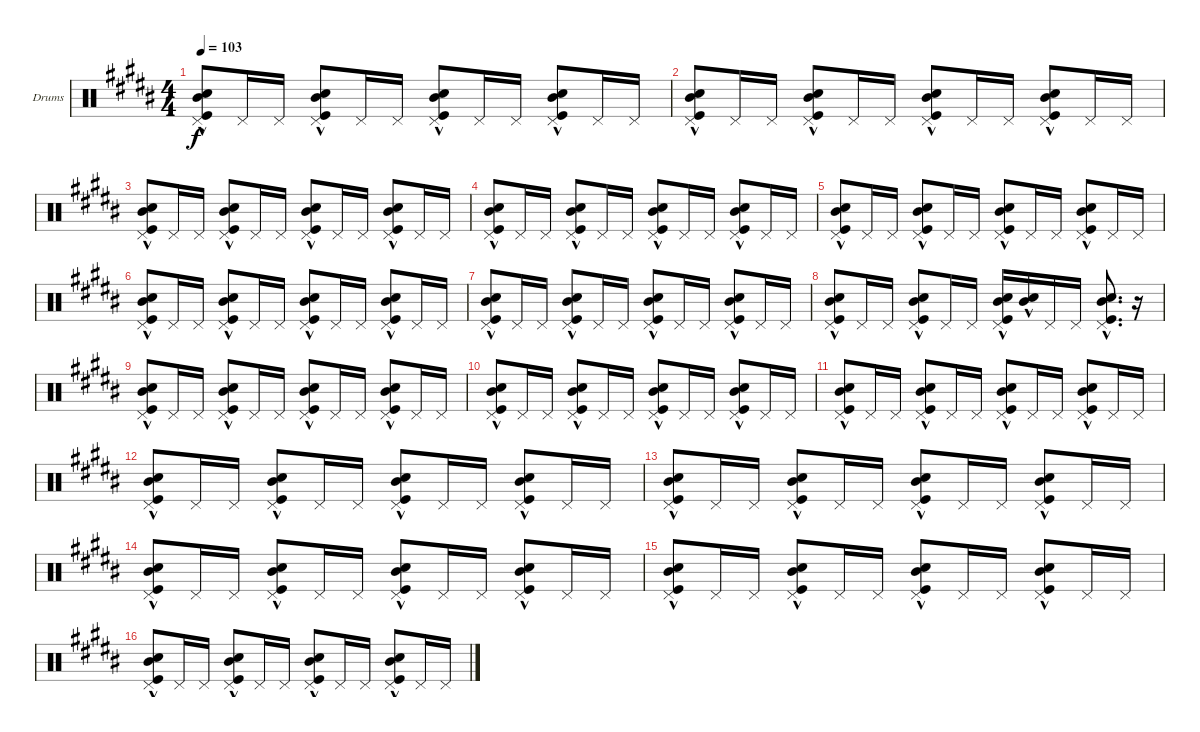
\defaultSystemsLayout 4
\bracketExtendMode groupsimilarinstruments
\firstSystemTrackNameOrientation horizontal
\otherSystemsTrackNameOrientation horizontal
\track ("Drumkit" "Drums") {instrument percussion}
\staff {score}
\articulation defaults
\ts (4 4)
\tempo 103
\clef neutral
\ks b
("Snare (hit) 2" "Mid Tom (hit)"{hac} "Pedal Hi-Hat (hit)" "Kick (hit)"{hac}).8{dy f} "Pedal Hi-Hat (hit)".16 "Pedal Hi-Hat (hit)".16 ("Snare (hit) 2" "Mid Tom (hit)"{hac} "Pedal Hi-Hat (hit)" "Kick (hit)"{hac}).8 "Pedal Hi-Hat (hit)".16 "Pedal Hi-Hat (hit)".16 ("Snare (hit) 2" "Mid Tom (hit)"{hac} "Pedal Hi-Hat (hit)" "Kick (hit)"{hac}).8 "Pedal Hi-Hat (hit)".16 "Pedal Hi-Hat (hit)".16 ("Snare (hit) 2" "Mid Tom (hit)"{hac} "Pedal Hi-Hat (hit)" "Kick (hit)"{hac}).8 "Pedal Hi-Hat (hit)".16 "Pedal Hi-Hat (hit)".16 |
("Snare (hit) 2" "Mid Tom (hit)"{hac} "Pedal Hi-Hat (hit)" "Kick (hit)"{hac}).8 "Pedal Hi-Hat (hit)".16 "Pedal Hi-Hat (hit)".16 ("Snare (hit) 2" "Mid Tom (hit)"{hac} "Pedal Hi-Hat (hit)" "Kick (hit)"{hac}).8 "Pedal Hi-Hat (hit)".16 "Pedal Hi-Hat (hit)".16 ("Snare (hit) 2" "Mid Tom (hit)"{hac} "Pedal Hi-Hat (hit)" "Kick (hit)"{hac}).8 "Pedal Hi-Hat (hit)".16 "Pedal Hi-Hat (hit)".16 ("Snare (hit) 2" "Mid Tom (hit)"{hac} "Pedal Hi-Hat (hit)" "Kick (hit)"{hac}).8 "Pedal Hi-Hat (hit)".16 "Pedal Hi-Hat (hit)".16 |
("Snare (hit) 2" "Mid Tom (hit)"{hac} "Pedal Hi-Hat (hit)" "Kick (hit)"{hac}).8 "Pedal Hi-Hat (hit)".16 "Pedal Hi-Hat (hit)".16 ("Snare (hit) 2" "Mid Tom (hit)"{hac} "Pedal Hi-Hat (hit)" "Kick (hit)"{hac}).8 "Pedal Hi-Hat (hit)".16 "Pedal Hi-Hat (hit)".16 ("Snare (hit) 2" "Mid Tom (hit)"{hac} "Pedal Hi-Hat (hit)" "Kick (hit)"{hac}).8 "Pedal Hi-Hat (hit)".16 "Pedal Hi-Hat (hit)".16 ("Snare (hit) 2" "Mid Tom (hit)"{hac} "Pedal Hi-Hat (hit)" "Kick (hit)"{hac}).8 "Pedal Hi-Hat (hit)".16 "Pedal Hi-Hat (hit)".16 |
("Snare (hit) 2" "Mid Tom (hit)"{hac} "Pedal Hi-Hat (hit)" "Kick (hit)"{hac}).8 "Pedal Hi-Hat (hit)".16 "Pedal Hi-Hat (hit)".16 ("Snare (hit) 2" "Mid Tom (hit)"{hac} "Pedal Hi-Hat (hit)" "Kick (hit)"{hac}).8 "Pedal Hi-Hat (hit)".16 "Pedal Hi-Hat (hit)".16 ("Snare (hit) 2" "Mid Tom (hit)"{hac} "Pedal Hi-Hat (hit)" "Kick (hit)"{hac}).8 "Pedal Hi-Hat (hit)".16 "Pedal Hi-Hat (hit)".16 ("Snare (hit) 2" "Mid Tom (hit)"{hac} "Pedal Hi-Hat (hit)" "Kick (hit)"{hac}).8 "Pedal Hi-Hat (hit)".16 "Pedal Hi-Hat (hit)".16 |
("Snare (hit) 2" "Mid Tom (hit)"{hac} "Pedal Hi-Hat (hit)" "Kick (hit)"{hac}).8 "Pedal Hi-Hat (hit)".16 "Pedal Hi-Hat (hit)".16 ("Snare (hit) 2" "Mid Tom (hit)"{hac} "Pedal Hi-Hat (hit)" "Kick (hit)"{hac}).8 "Pedal Hi-Hat (hit)".16 "Pedal Hi-Hat (hit)".16 ("Snare (hit) 2" "Mid Tom (hit)"{hac} "Pedal Hi-Hat (hit)" "Kick (hit)"{hac}).8 "Pedal Hi-Hat (hit)".16 "Pedal Hi-Hat (hit)".16 ("Snare (hit) 2" "Mid Tom (hit)"{hac} "Pedal Hi-Hat (hit)" "Kick (hit)"{hac}).8 "Pedal Hi-Hat (hit)".16 "Pedal Hi-Hat (hit)".16 |
("Snare (hit) 2" "Mid Tom (hit)"{hac} "Pedal Hi-Hat (hit)" "Kick (hit)"{hac}).8 "Pedal Hi-Hat (hit)".16 "Pedal Hi-Hat (hit)".16 ("Snare (hit) 2" "Mid Tom (hit)"{hac} "Pedal Hi-Hat (hit)" "Kick (hit)"{hac}).8 "Pedal Hi-Hat (hit)".16 "Pedal Hi-Hat (hit)".16 ("Snare (hit) 2" "Mid Tom (hit)"{hac} "Pedal Hi-Hat (hit)" "Kick (hit)"{hac}).8 "Pedal Hi-Hat (hit)".16 "Pedal Hi-Hat (hit)".16 ("Snare (hit) 2" "Mid Tom (hit)"{hac} "Pedal Hi-Hat (hit)" "Kick (hit)"{hac}).8 "Pedal Hi-Hat (hit)".16 "Pedal Hi-Hat (hit)".16 |
("Snare (hit) 2" "Mid Tom (hit)"{hac} "Pedal Hi-Hat (hit)" "Kick (hit)"{hac}).8 "Pedal Hi-Hat (hit)".16 "Pedal Hi-Hat (hit)".16 ("Snare (hit) 2" "Mid Tom (hit)"{hac} "Pedal Hi-Hat (hit)" "Kick (hit)"{hac}).8 "Pedal Hi-Hat (hit)".16 "Pedal Hi-Hat (hit)".16 ("Snare (hit) 2" "Mid Tom (hit)"{hac} "Pedal Hi-Hat (hit)" "Kick (hit)"{hac}).8 "Pedal Hi-Hat (hit)".16 "Pedal Hi-Hat (hit)".16 ("Snare (hit) 2" "Mid Tom (hit)"{hac} "Pedal Hi-Hat (hit)" "Kick (hit)"{hac}).8 "Pedal Hi-Hat (hit)".16 "Pedal Hi-Hat (hit)".16 |
("Snare (hit) 2" "Mid Tom (hit)"{hac} "Pedal Hi-Hat (hit)" "Kick (hit)"{hac}).8 "Pedal Hi-Hat (hit)".16 "Pedal Hi-Hat (hit)".16 ("Snare (hit) 2" "Mid Tom (hit)"{hac} "Pedal Hi-Hat (hit)" "Kick (hit)"{hac}).8 "Pedal Hi-Hat (hit)".16 "Pedal Hi-Hat (hit)".16 ("Pedal Hi-Hat (hit)" "Kick (hit)"{hac} "Snare (hit) 2" "Mid Tom (hit)"{hac}).16 ("Mid Tom (hit)"{hac} "Snare (hit) 2").16 "Pedal Hi-Hat (hit)".16 "Pedal Hi-Hat (hit)".16 ("Pedal Hi-Hat (hit)" "Kick (hit)"{hac} "Mid Tom (hit)"{hac} "Snare (hit) 2").8{d} r.16 |
("Snare (hit) 2" "Mid Tom (hit)"{hac} "Pedal Hi-Hat (hit)" "Kick (hit)"{hac}).8 "Pedal Hi-Hat (hit)".16 "Pedal Hi-Hat (hit)".16 ("Snare (hit) 2" "Mid Tom (hit)"{hac} "Pedal Hi-Hat (hit)" "Kick (hit)"{hac}).8 "Pedal Hi-Hat (hit)".16 "Pedal Hi-Hat (hit)".16 ("Snare (hit) 2" "Mid Tom (hit)"{hac} "Pedal Hi-Hat (hit)" "Kick (hit)"{hac}).8 "Pedal Hi-Hat (hit)".16 "Pedal Hi-Hat (hit)".16 ("Snare (hit) 2" "Mid Tom (hit)"{hac} "Pedal Hi-Hat (hit)" "Kick (hit)"{hac}).8 "Pedal Hi-Hat (hit)".16 "Pedal Hi-Hat (hit)".16 |
("Snare (hit) 2" "Mid Tom (hit)"{hac} "Pedal Hi-Hat (hit)" "Kick (hit)"{hac}).8 "Pedal Hi-Hat (hit)".16 "Pedal Hi-Hat (hit)".16 ("Snare (hit) 2" "Mid Tom (hit)"{hac} "Pedal Hi-Hat (hit)" "Kick (hit)"{hac}).8 "Pedal Hi-Hat (hit)".16 "Pedal Hi-Hat (hit)".16 ("Snare (hit) 2" "Mid Tom (hit)"{hac} "Pedal Hi-Hat (hit)" "Kick (hit)"{hac}).8 "Pedal Hi-Hat (hit)".16 "Pedal Hi-Hat (hit)".16 ("Snare (hit) 2" "Mid Tom (hit)"{hac} "Pedal Hi-Hat (hit)" "Kick (hit)"{hac}).8 "Pedal Hi-Hat (hit)".16 "Pedal Hi-Hat (hit)".16 |
("Snare (hit) 2" "Mid Tom (hit)"{hac} "Pedal Hi-Hat (hit)" "Kick (hit)"{hac}).8 "Pedal Hi-Hat (hit)".16 "Pedal Hi-Hat (hit)".16 ("Snare (hit) 2" "Mid Tom (hit)"{hac} "Pedal Hi-Hat (hit)" "Kick (hit)"{hac}).8 "Pedal Hi-Hat (hit)".16 "Pedal Hi-Hat (hit)".16 ("Snare (hit) 2" "Mid Tom (hit)"{hac} "Pedal Hi-Hat (hit)" "Kick (hit)"{hac}).8 "Pedal Hi-Hat (hit)".16 "Pedal Hi-Hat (hit)".16 ("Snare (hit) 2" "Mid Tom (hit)"{hac} "Pedal Hi-Hat (hit)" "Kick (hit)"{hac}).8 "Pedal Hi-Hat (hit)".16 "Pedal Hi-Hat (hit)".16 |
("Snare (hit) 2" "Mid Tom (hit)"{hac} "Pedal Hi-Hat (hit)" "Kick (hit)"{hac}).8 "Pedal Hi-Hat (hit)".16 "Pedal Hi-Hat (hit)".16 ("Snare (hit) 2" "Mid Tom (hit)"{hac} "Pedal Hi-Hat (hit)" "Kick (hit)"{hac}).8 "Pedal Hi-Hat (hit)".16 "Pedal Hi-Hat (hit)".16 ("Snare (hit) 2" "Mid Tom (hit)"{hac} "Pedal Hi-Hat (hit)" "Kick (hit)"{hac}).8 "Pedal Hi-Hat (hit)".16 "Pedal Hi-Hat (hit)".16 ("Snare (hit) 2" "Mid Tom (hit)"{hac} "Pedal Hi-Hat (hit)" "Kick (hit)"{hac}).8 "Pedal Hi-Hat (hit)".16 "Pedal Hi-Hat (hit)".16 |
("Snare (hit) 2" "Mid Tom (hit)"{hac} "Pedal Hi-Hat (hit)" "Kick (hit)"{hac}).8 "Pedal Hi-Hat (hit)".16 "Pedal Hi-Hat (hit)".16 ("Snare (hit) 2" "Mid Tom (hit)"{hac} "Pedal Hi-Hat (hit)" "Kick (hit)"{hac}).8 "Pedal Hi-Hat (hit)".16 "Pedal Hi-Hat (hit)".16 ("Snare (hit) 2" "Mid Tom (hit)"{hac} "Pedal Hi-Hat (hit)" "Kick (hit)"{hac}).8 "Pedal Hi-Hat (hit)".16 "Pedal Hi-Hat (hit)".16 ("Snare (hit) 2" "Mid Tom (hit)"{hac} "Pedal Hi-Hat (hit)" "Kick (hit)"{hac}).8 "Pedal Hi-Hat (hit)".16 "Pedal Hi-Hat (hit)".16 |
("Snare (hit) 2" "Mid Tom (hit)"{hac} "Pedal Hi-Hat (hit)" "Kick (hit)"{hac}).8 "Pedal Hi-Hat (hit)".16 "Pedal Hi-Hat (hit)".16 ("Snare (hit) 2" "Mid Tom (hit)"{hac} "Pedal Hi-Hat (hit)" "Kick (hit)"{hac}).8 "Pedal Hi-Hat (hit)".16 "Pedal Hi-Hat (hit)".16 ("Snare (hit) 2" "Mid Tom (hit)"{hac} "Pedal Hi-Hat (hit)" "Kick (hit)"{hac}).8 "Pedal Hi-Hat (hit)".16 "Pedal Hi-Hat (hit)".16 ("Snare (hit) 2" "Mid Tom (hit)"{hac} "Pedal Hi-Hat (hit)" "Kick (hit)"{hac}).8 "Pedal Hi-Hat (hit)".16 "Pedal Hi-Hat (hit)".16 |
("Snare (hit) 2" "Mid Tom (hit)"{hac} "Pedal Hi-Hat (hit)" "Kick (hit)"{hac}).8 "Pedal Hi-Hat (hit)".16 "Pedal Hi-Hat (hit)".16 ("Snare (hit) 2" "Mid Tom (hit)"{hac} "Pedal Hi-Hat (hit)" "Kick (hit)"{hac}).8 "Pedal Hi-Hat (hit)".16 "Pedal Hi-Hat (hit)".16 ("Snare (hit) 2" "Mid Tom (hit)"{hac} "Pedal Hi-Hat (hit)" "Kick (hit)"{hac}).8 "Pedal Hi-Hat (hit)".16 "Pedal Hi-Hat (hit)".16 ("Snare (hit) 2" "Mid Tom (hit)"{hac} "Pedal Hi-Hat (hit)" "Kick (hit)"{hac}).8 "Pedal Hi-Hat (hit)".16 "Pedal Hi-Hat (hit)".16 |
("Snare (hit) 2" "Mid Tom (hit)"{hac} "Pedal Hi-Hat (hit)" "Kick (hit)"{hac}).8 "Pedal Hi-Hat (hit)".16 "Pedal Hi-Hat (hit)".16 ("Snare (hit) 2" "Mid Tom (hit)"{hac} "Pedal Hi-Hat (hit)" "Kick (hit)"{hac}).8 "Pedal Hi-Hat (hit)".16 "Pedal Hi-Hat (hit)".16 ("Snare (hit) 2" "Mid Tom (hit)"{hac} "Pedal Hi-Hat (hit)" "Kick (hit)"{hac}).8 "Pedal Hi-Hat (hit)".16 "Pedal Hi-Hat (hit)".16 ("Snare (hit) 2" "Mid Tom (hit)"{hac} "Pedal Hi-Hat (hit)" "Kick (hit)"{hac}).8 "Pedal Hi-Hat (hit)".16 "Pedal Hi-Hat (hit)".16
